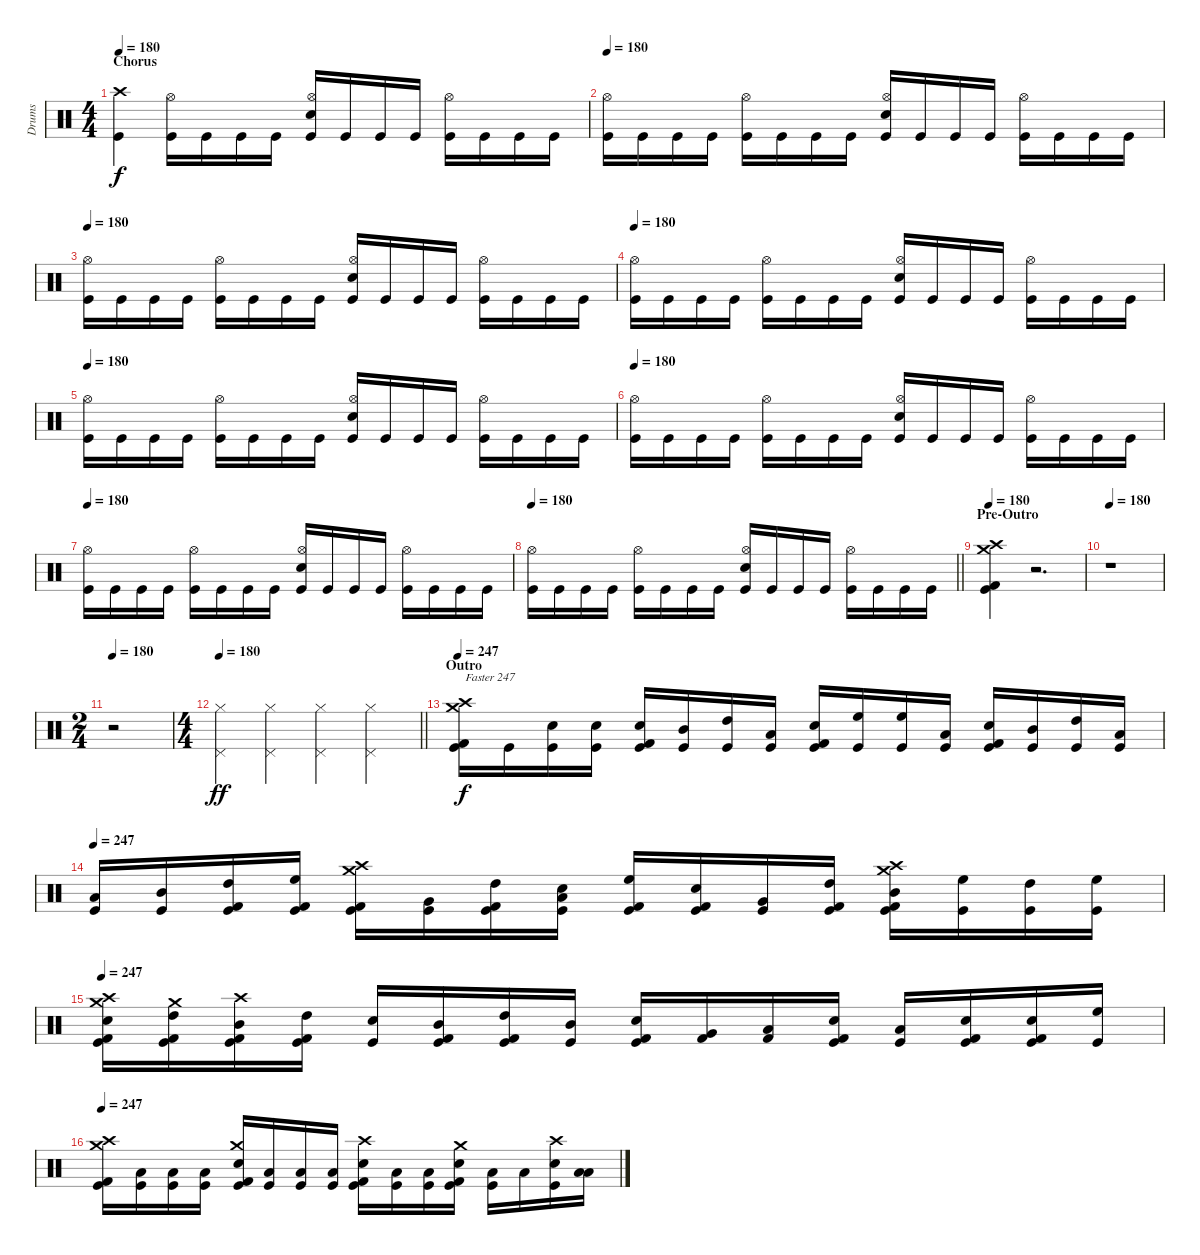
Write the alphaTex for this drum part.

\track ("Drums" "Drums") {instrument percussion}
\staff {score}
\articulation defaults
\ts (4 4)
\section ("" "Chorus")
\tempo 180
\clef neutral
\ks c
("Crash high (hit)" "Kick (hit)").4{dy f} ("Hi-Hat (open)" "Kick (hit)").16 "Kick (hit)".16 "Kick (hit)".16 "Kick (hit)".16 ("Hi-Hat (open)" "Snare (hit) 2" "Kick (hit)").16 "Kick (hit)".16 "Kick (hit)".16 "Kick (hit)".16 ("Hi-Hat (open)" "Kick (hit)").16 "Kick (hit)".16 "Kick (hit)".16 "Kick (hit)".16 |
\tempo 180
("Hi-Hat (open)" "Kick (hit)").16 "Kick (hit)".16 "Kick (hit)".16 "Kick (hit)".16 ("Hi-Hat (open)" "Kick (hit)").16 "Kick (hit)".16 "Kick (hit)".16 "Kick (hit)".16 ("Hi-Hat (open)" "Snare (hit) 2" "Kick (hit)").16 "Kick (hit)".16 "Kick (hit)".16 "Kick (hit)".16 ("Hi-Hat (open)" "Kick (hit)").16 "Kick (hit)".16 "Kick (hit)".16 "Kick (hit)".16 |
\tempo 180
("Hi-Hat (open)" "Kick (hit)").16 "Kick (hit)".16 "Kick (hit)".16 "Kick (hit)".16 ("Hi-Hat (open)" "Kick (hit)").16 "Kick (hit)".16 "Kick (hit)".16 "Kick (hit)".16 ("Hi-Hat (open)" "Snare (hit) 2" "Kick (hit)").16 "Kick (hit)".16 "Kick (hit)".16 "Kick (hit)".16 ("Hi-Hat (open)" "Kick (hit)").16 "Kick (hit)".16 "Kick (hit)".16 "Kick (hit)".16 |
\tempo 180
("Hi-Hat (open)" "Kick (hit)").16 "Kick (hit)".16 "Kick (hit)".16 "Kick (hit)".16 ("Hi-Hat (open)" "Kick (hit)").16 "Kick (hit)".16 "Kick (hit)".16 "Kick (hit)".16 ("Hi-Hat (open)" "Snare (hit) 2" "Kick (hit)").16 "Kick (hit)".16 "Kick (hit)".16 "Kick (hit)".16 ("Hi-Hat (open)" "Kick (hit)").16 "Kick (hit)".16 "Kick (hit)".16 "Kick (hit)".16 |
\tempo 180
("Hi-Hat (open)" "Kick (hit)").16 "Kick (hit)".16 "Kick (hit)".16 "Kick (hit)".16 ("Hi-Hat (open)" "Kick (hit)").16 "Kick (hit)".16 "Kick (hit)".16 "Kick (hit)".16 ("Hi-Hat (open)" "Snare (hit) 2" "Kick (hit)").16 "Kick (hit)".16 "Kick (hit)".16 "Kick (hit)".16 ("Hi-Hat (open)" "Kick (hit)").16 "Kick (hit)".16 "Kick (hit)".16 "Kick (hit)".16 |
\tempo 180
("Hi-Hat (open)" "Kick (hit)").16 "Kick (hit)".16 "Kick (hit)".16 "Kick (hit)".16 ("Hi-Hat (open)" "Kick (hit)").16 "Kick (hit)".16 "Kick (hit)".16 "Kick (hit)".16 ("Hi-Hat (open)" "Snare (hit) 2" "Kick (hit)").16 "Kick (hit)".16 "Kick (hit)".16 "Kick (hit)".16 ("Hi-Hat (open)" "Kick (hit)").16 "Kick (hit)".16 "Kick (hit)".16 "Kick (hit)".16 |
\tempo 180
("Hi-Hat (open)" "Kick (hit)").16 "Kick (hit)".16 "Kick (hit)".16 "Kick (hit)".16 ("Hi-Hat (open)" "Kick (hit)").16 "Kick (hit)".16 "Kick (hit)".16 "Kick (hit)".16 ("Hi-Hat (open)" "Snare (hit) 2" "Kick (hit)").16 "Kick (hit)".16 "Kick (hit)".16 "Kick (hit)".16 ("Hi-Hat (open)" "Kick (hit)").16 "Kick (hit)".16 "Kick (hit)".16 "Kick (hit)".16 |
\tempo 180
\barLineRight lightlight
("Hi-Hat (open)" "Kick (hit)").16 "Kick (hit)".16 "Kick (hit)".16 "Kick (hit)".16 ("Hi-Hat (open)" "Kick (hit)").16 "Kick (hit)".16 "Kick (hit)".16 "Kick (hit)".16 ("Hi-Hat (open)" "Snare (hit) 2" "Kick (hit)").16 "Kick (hit)".16 "Kick (hit)".16 "Kick (hit)".16 ("Hi-Hat (open)" "Kick (hit)").16 "Kick (hit)".16 "Kick (hit)".16 "Kick (hit)".16 |
\section ("" "Pre-Outro")
\tempo 180
("Crash high (hit)" "Crash medium (hit)" "Kick (hit) 2" "Kick (hit)").4 r.2{d} |
\tempo 180
r.1 |
\ts (2 4)
\tempo 180
r.2 |
\ts (4 4)
\tempo 180
\barLineRight lightlight
("Hi-Hat (closed)" "Pedal Hi-Hat (hit)").4{dy ff} ("Hi-Hat (closed)" "Pedal Hi-Hat (hit)").4 ("Hi-Hat (closed)" "Pedal Hi-Hat (hit)").4 ("Hi-Hat (closed)" "Pedal Hi-Hat (hit)").4 |
\section ("" "Outro")
\tempo 247
("Crash high (hit)" "Crash medium (hit)" "Kick (hit) 2" "Kick (hit)").16{txt "Faster 247" dy f} "Kick (hit)".16 ("Snare (hit) 2" "Kick (hit)").16 ("Snare (hit) 2" "Kick (hit)").16 ("Snare (hit) 2" "Kick (hit) 2" "Kick (hit)").16 ("Mid Tom (hit)" "Kick (hit)").16 ("High Tom (hit)" "Kick (hit)").16 ("Low Tom (hit)" "Kick (hit)").16 ("Snare (hit) 2" "Kick (hit) 2" "Kick (hit)").16 ("High Floor Tom (hit)" "Kick (hit)").16 ("High Floor Tom (hit)" "Kick (hit)").16 ("Low Tom (hit)" "Kick (hit)").16 ("Snare (hit) 2" "Kick (hit) 2" "Kick (hit)").16 ("Mid Tom (hit)" "Kick (hit)").16 ("High Tom (hit)" "Kick (hit)").16 ("Low Tom (hit)" "Kick (hit)").16 |
\tempo 247
("Low Tom (hit)" "Kick (hit)").16 ("Mid Tom (hit)" "Kick (hit)").16 ("High Tom (hit)" "Kick (hit) 2" "Kick (hit)").16 ("High Floor Tom (hit)" "Kick (hit) 2" "Kick (hit)").16 ("Crash high (hit)" "Crash medium (hit)" "Kick (hit) 2" "Kick (hit)").16 ("Very Low Tom (hit)" "Kick (hit)").16 ("High Tom (hit)" "Kick (hit) 2" "Kick (hit)").16 ("Snare (hit) 2" "Low Floor Tom (hit)" "Kick (hit)").16 ("High Floor Tom (hit)" "Kick (hit) 2" "Kick (hit)").16 ("Snare (hit) 2" "Kick (hit) 2" "Kick (hit)").16 ("Very Low Tom (hit)" "Kick (hit)").16 ("High Tom (hit)" "Kick (hit) 2" "Kick (hit)").16 ("Crash high (hit)" "Crash medium (hit)" "Mid Tom (hit)" "Kick (hit) 2" "Kick (hit)").16 ("High Floor Tom (hit)" "Kick (hit)").16 ("High Tom (hit)" "Kick (hit)").16 ("High Floor Tom (hit)" "Kick (hit)").16 |
\tempo 247
("Crash high (hit)" "Crash medium (hit)" "Snare (hit) 2" "Kick (hit) 2" "Kick (hit)").16 ("Crash medium (hit)" "High Tom (hit)" "Kick (hit) 2" "Kick (hit)").16 ("Crash high (hit)" "Mid Tom (hit)" "Kick (hit) 2" "Kick (hit)").16 ("High Tom (hit)" "Kick (hit) 2" "Kick (hit)").16 ("Snare (hit) 2" "Kick (hit)").16 ("Mid Tom (hit)" "Kick (hit) 2" "Kick (hit)").16 ("High Tom (hit)" "Kick (hit) 2" "Kick (hit)").16 ("Mid Tom (hit)" "Kick (hit)").16 ("Snare (hit) 2" "Kick (hit) 2" "Kick (hit)").16 ("Kick (hit) 2" "Very Low Tom (hit)").16 ("Kick (hit) 2" "Low Floor Tom (hit)").16 ("Snare (hit) 2" "Kick (hit) 2" "Kick (hit)").16 ("Low Tom (hit)" "Kick (hit)").16 ("Snare (hit) 2" "Kick (hit) 2" "Kick (hit)").16 ("Snare (hit) 2" "Kick (hit) 2" "Kick (hit)").16 ("High Floor Tom (hit)" "Kick (hit)").16 |
\tempo 247
("Crash high (hit)" "Crash medium (hit)" "Kick (hit) 2" "Kick (hit)").16 ("Low Tom (hit)" "Kick (hit)").16 ("Low Tom (hit)" "Kick (hit)").16 ("Low Tom (hit)" "Kick (hit)").16 ("Crash medium (hit)" "Snare (hit) 2" "Kick (hit) 2" "Kick (hit)").16 ("Low Tom (hit)" "Kick (hit)").16 ("Low Tom (hit)" "Kick (hit)").16 ("Low Tom (hit)" "Kick (hit)").16 ("Crash high (hit)" "Snare (hit) 2" "Kick (hit) 2" "Kick (hit)").16 ("Low Tom (hit)" "Kick (hit)").16 ("Low Tom (hit)" "Kick (hit)").16 ("Crash medium (hit)" "Snare (hit) 2" "Kick (hit) 2" "Kick (hit)").16 ("Low Tom (hit)" "Kick (hit)").16 "Low Floor Tom (hit)".16 ("Crash high (hit)" "Snare (hit) 2" "Kick (hit)").16 ("Low Tom (hit)" "Low Floor Tom (hit)").16
